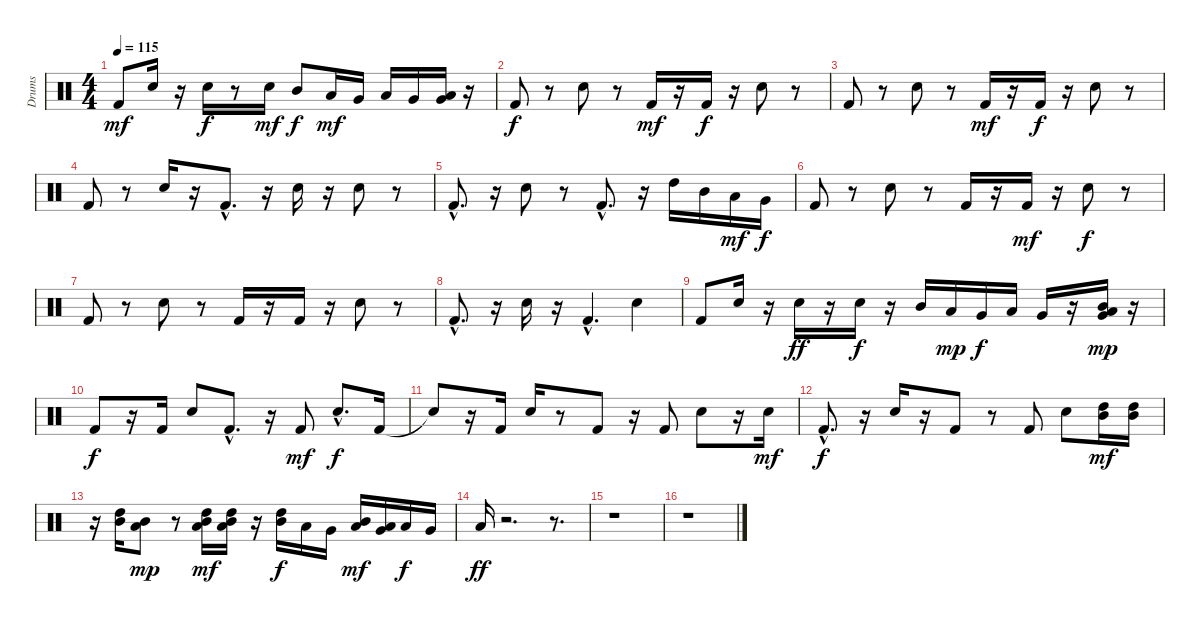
\track ("Drums" "Drums") {instrument percussion}
\staff {score}
\articulation defaults
\ts (4 4)
\tempo 115
\clef neutral
\ks c "Kick (hit) 2".8{dy mf} "Electric Snare (hit)".16
r.16 "Electric Snare (hit)".16{dy f} r.8 "Electric Snare (hit)".16{dy mf} "Mid Tom (hit)".8{dy f} "Low Tom (hit)".16{dy mf} "Very Low Tom (hit)".16 "Low Tom (hit)".16 "Very Low Tom (hit)".16 ("Low Floor Tom (hit)" "Very Low Tom (hit)").16 r.16 |
"Kick (hit) 2".8{dy f} r.8 "Electric Snare (hit)".8 r.8 "Kick (hit) 2".16{dy mf} r.16 "Kick (hit) 2".16{dy f} r.16 "Electric Snare (hit)".8 r.8 |
"Kick (hit) 2".8 r.8 "Electric Snare (hit)".8 r.8 "Kick (hit) 2".16{dy mf} r.16 "Kick (hit) 2".16{dy f} r.16 "Electric Snare (hit)".8 r.8 |
"Kick (hit) 2".8 r.8 "Electric Snare (hit)".16 r.16 "Kick (hit) 2"{hac}.8{d} r.16 "Electric Snare (hit)".16 r.16 "Electric Snare (hit)".8 r.8 |
"Kick (hit) 2"{hac}.8{d} r.16 "Electric Snare (hit)".8 r.8 "Kick (hit) 2"{hac}.8{d} r.16 "High Tom (hit)".16 "Mid Tom (hit)".16 "Low Tom (hit)".16{dy mf} "Very Low Tom (hit)".16{dy f} |
"Kick (hit) 2".8 r.8 "Electric Snare (hit)".8 r.8 "Kick (hit) 2".16 r.16 "Kick (hit) 2".16{dy mf} r.16 "Electric Snare (hit)".8{dy f} r.8 |
"Kick (hit) 2".8 r.8 "Electric Snare (hit)".8 r.8 "Kick (hit) 2".16 r.16 "Kick (hit) 2".16 r.16 "Electric Snare (hit)".8 r.8 |
"Kick (hit) 2"{hac}.8{d} r.16 "Electric Snare (hit)".16 r.16 "Kick (hit) 2"{hac}.4{d} "Electric Snare (hit)".4 |
"Kick (hit) 2".8 "Electric Snare (hit)".16 r.16 "Electric Snare (hit)".16{dy ff} r.16 "Electric Snare (hit)".16{dy f} r.16 "Mid Tom (hit)".16 "Low Tom (hit)".16{dy mp} "Very Low Tom (hit)".16{dy f} "Low Tom (hit)".16 "Very Low Tom (hit)".16 r.16 ("Low Tom (hit)" "Mid Tom (hit)" "Very Low Tom (hit)").16{dy mp} r.16 |
"Kick (hit) 2".8{dy f} r.16 "Kick (hit) 2".16 "Electric Snare (hit)".8 "Kick (hit) 2"{hac}.8{d} r.16 "Kick (hit) 2".8{dy mf} "Electric Snare (hit)"{hac}.8{d dy f} "Kick (hit) 2".16 |
"Snare (hit)"{t}.8 r.16 "Kick (hit) 2".16 "Electric Snare (hit)".16 r.8 "Kick (hit) 2".8 r.16 "Kick (hit) 2".8 "Electric Snare (hit)".8 r.16 "Electric Snare (hit)".16{dy mf} |
"Kick (hit) 2"{hac}.8{d dy f} r.16 "Electric Snare (hit)".16 r.16 "Kick (hit) 2".8 r.8 "Kick (hit) 2".8 "Electric Snare (hit)".8 ("High Tom (hit)" "Mid Tom (hit)").16{dy mf} ("Mid Tom (hit)" "High Tom (hit)").16 |
r.16 ("Mid Tom (hit)" "High Tom (hit)").16 ("Mid Tom (hit)" "Low Tom (hit)").8{dy mp} r.8 ("Mid Tom (hit)" "High Tom (hit)" "Low Tom (hit)").16{dy mf} ("Mid Tom (hit)" "High Tom (hit)" "Low Tom (hit)").16 r.16 ("High Tom (hit)" "Mid Tom (hit)").16{dy f} "Low Tom (hit)".16 "Very Low Tom (hit)".16 ("Mid Tom (hit)" "Low Tom (hit)").16{dy mf} ("Very Low Tom (hit)" "Low Tom (hit)").16 "Low Floor Tom (hit)".16{dy f} "Very Low Tom (hit)".16 |
"Low Floor Tom (hit)".16{dy ff} r.2{d} r.8{d} |
r.1 |
r.1
